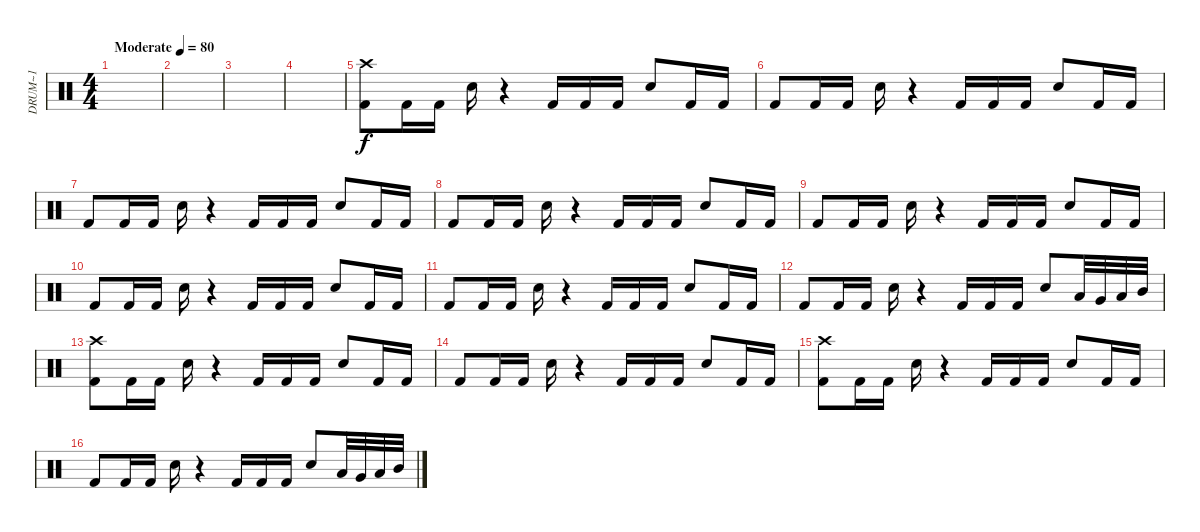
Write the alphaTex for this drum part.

\track ("DRUM~1" "DRUM~1") {instrument percussion}
\staff {score}
\articulation defaults
\ts (4 4)
\tempo (80 "Moderate")
\clef neutral
\ks c
|
|
|
|
("Crash high (hit)" "Kick (hit) 2").8 "Kick (hit) 2".16 "Kick (hit) 2".16 "Snare (hit) 2".16 r.4 "Kick (hit) 2".16 "Kick (hit) 2".16 "Kick (hit) 2".16 "Snare (hit) 2".8 "Kick (hit) 2".16 "Kick (hit) 2".16 |
"Kick (hit) 2".8 "Kick (hit) 2".16 "Kick (hit) 2".16 "Snare (hit) 2".16 r.4 "Kick (hit) 2".16 "Kick (hit) 2".16 "Kick (hit) 2".16 "Snare (hit) 2".8 "Kick (hit) 2".16 "Kick (hit) 2".16 |
"Kick (hit) 2".8 "Kick (hit) 2".16 "Kick (hit) 2".16 "Snare (hit) 2".16 r.4 "Kick (hit) 2".16 "Kick (hit) 2".16 "Kick (hit) 2".16 "Snare (hit) 2".8 "Kick (hit) 2".16 "Kick (hit) 2".16 |
"Kick (hit) 2".8 "Kick (hit) 2".16 "Kick (hit) 2".16 "Snare (hit) 2".16 r.4 "Kick (hit) 2".16 "Kick (hit) 2".16 "Kick (hit) 2".16 "Snare (hit) 2".8 "Kick (hit) 2".16 "Kick (hit) 2".16 |
"Kick (hit) 2".8 "Kick (hit) 2".16 "Kick (hit) 2".16 "Snare (hit) 2".16 r.4 "Kick (hit) 2".16 "Kick (hit) 2".16 "Kick (hit) 2".16 "Snare (hit) 2".8 "Kick (hit) 2".16 "Kick (hit) 2".16 |
"Kick (hit) 2".8 "Kick (hit) 2".16 "Kick (hit) 2".16 "Snare (hit) 2".16 r.4 "Kick (hit) 2".16 "Kick (hit) 2".16 "Kick (hit) 2".16 "Snare (hit) 2".8 "Kick (hit) 2".16 "Kick (hit) 2".16 |
"Kick (hit) 2".8 "Kick (hit) 2".16 "Kick (hit) 2".16 "Snare (hit) 2".16 r.4 "Kick (hit) 2".16 "Kick (hit) 2".16 "Kick (hit) 2".16 "Snare (hit) 2".8 "Kick (hit) 2".16 "Kick (hit) 2".16 |
"Kick (hit) 2".8 "Kick (hit) 2".16 "Kick (hit) 2".16 "Snare (hit) 2".16 r.4 "Kick (hit) 2".16 "Kick (hit) 2".16 "Kick (hit) 2".16 "Snare (hit) 2".8 "Low Floor Tom (hit)".32 "Very Low Tom (hit)".32 "Low Tom (hit)".32 "Mid Tom (hit)".32 |
("Crash high (hit)" "Kick (hit) 2").8 "Kick (hit) 2".16 "Kick (hit) 2".16 "Snare (hit) 2".16 r.4 "Kick (hit) 2".16 "Kick (hit) 2".16 "Kick (hit) 2".16 "Snare (hit) 2".8 "Kick (hit) 2".16 "Kick (hit) 2".16 |
"Kick (hit) 2".8 "Kick (hit) 2".16 "Kick (hit) 2".16 "Snare (hit) 2".16 r.4 "Kick (hit) 2".16 "Kick (hit) 2".16 "Kick (hit) 2".16 "Snare (hit) 2".8 "Kick (hit) 2".16 "Kick (hit) 2".16 |
("Crash high (hit)" "Kick (hit) 2").8 "Kick (hit) 2".16 "Kick (hit) 2".16 "Snare (hit) 2".16 r.4 "Kick (hit) 2".16 "Kick (hit) 2".16 "Kick (hit) 2".16 "Snare (hit) 2".8 "Kick (hit) 2".16 "Kick (hit) 2".16 |
"Kick (hit) 2".8 "Kick (hit) 2".16 "Kick (hit) 2".16 "Snare (hit) 2".16 r.4 "Kick (hit) 2".16 "Kick (hit) 2".16 "Kick (hit) 2".16 "Snare (hit) 2".8 "Low Floor Tom (hit)".32 "Very Low Tom (hit)".32 "Low Tom (hit)".32 "Mid Tom (hit)".32
